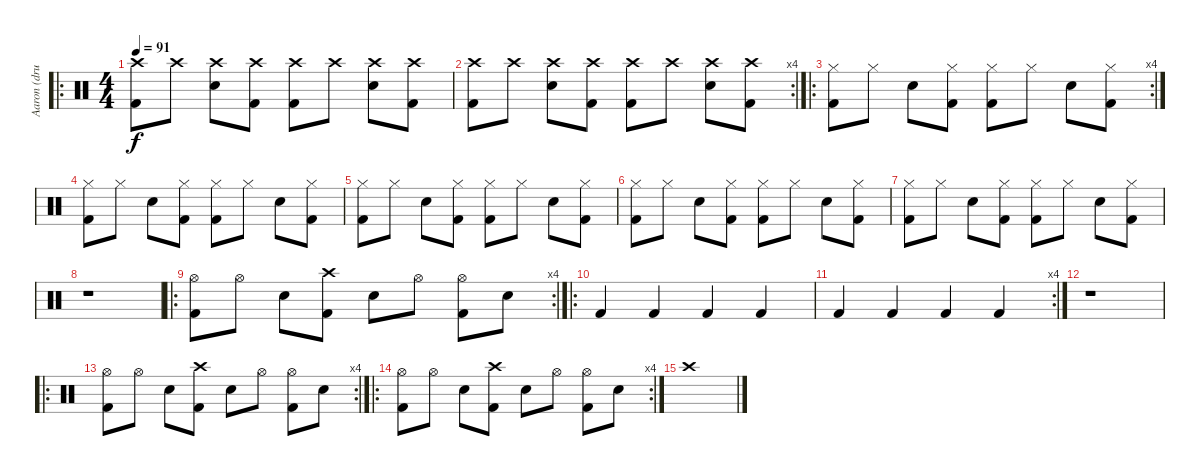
\track ("Aaron (drums)" "Aaron (dru") {instrument percussion}
\staff {score}
\articulation defaults
\ro
\ts (4 4)
\tempo 91
\clef neutral
\ks c
("Kick (hit) 2" "Crash high (hit)").8{dy f} "Crash high (hit)".8 ("Snare (hit) 2" "Crash high (hit)").8 ("Kick (hit) 2" "Crash high (hit)").8 ("Kick (hit) 2" "Crash high (hit)").8 "Crash high (hit)".8 ("Snare (hit) 2" "Crash high (hit)").8 ("Kick (hit) 2" "Crash high (hit)").8 |
\rc 4
("Kick (hit) 2" "Crash high (hit)").8 "Crash high (hit)".8 ("Snare (hit) 2" "Crash high (hit)").8 ("Kick (hit) 2" "Crash high (hit)").8 ("Kick (hit) 2" "Crash high (hit)").8 "Crash high (hit)".8 ("Snare (hit) 2" "Crash high (hit)").8 ("Kick (hit) 2" "Crash high (hit)").8 |
\ro
\rc 4
("Kick (hit) 2" "Hi-Hat (closed)").8 "Hi-Hat (closed)".8 "Snare (hit) 2".8 ("Kick (hit) 2" "Hi-Hat (closed)").8 ("Kick (hit) 2" "Hi-Hat (closed)").8 "Hi-Hat (closed)".8 "Snare (hit) 2".8 ("Kick (hit) 2" "Hi-Hat (closed)").8 |
("Kick (hit) 2" "Hi-Hat (closed)").8 "Hi-Hat (closed)".8 "Snare (hit) 2".8 ("Kick (hit) 2" "Hi-Hat (closed)").8 ("Kick (hit) 2" "Hi-Hat (closed)").8 "Hi-Hat (closed)".8 "Snare (hit) 2".8 ("Kick (hit) 2" "Hi-Hat (closed)").8 |
("Kick (hit) 2" "Hi-Hat (closed)").8 "Hi-Hat (closed)".8 "Snare (hit) 2".8 ("Kick (hit) 2" "Hi-Hat (closed)").8 ("Kick (hit) 2" "Hi-Hat (closed)").8 "Hi-Hat (closed)".8 "Snare (hit) 2".8 ("Kick (hit) 2" "Hi-Hat (closed)").8 |
("Kick (hit) 2" "Hi-Hat (closed)").8 "Hi-Hat (closed)".8 "Snare (hit) 2".8 ("Kick (hit) 2" "Hi-Hat (closed)").8 ("Kick (hit) 2" "Hi-Hat (closed)").8 "Hi-Hat (closed)".8 "Snare (hit) 2".8 ("Kick (hit) 2" "Hi-Hat (closed)").8 |
("Kick (hit) 2" "Hi-Hat (closed)").8 "Hi-Hat (closed)".8 "Snare (hit) 2".8 ("Kick (hit) 2" "Hi-Hat (closed)").8 ("Kick (hit) 2" "Hi-Hat (closed)").8 "Hi-Hat (closed)".8 "Snare (hit) 2".8 ("Kick (hit) 2" "Hi-Hat (closed)").8 |
r.1 |
\ro
\rc 4
("Kick (hit) 2" "Hi-Hat (open)").8 "Hi-Hat (open)".8 "Snare (hit) 2".8 ("Kick (hit) 2" "Crash high (hit)").8 "Snare (hit) 2".8 "Hi-Hat (open)".8 ("Kick (hit) 2" "Hi-Hat (open)").8 "Snare (hit) 2".8 |
\ro "Kick (hit) 2".4 "Kick (hit) 2".4 "Kick (hit) 2".4 "Kick (hit) 2".4
|
\rc 4 "Kick (hit) 2".4 "Kick (hit) 2".4 "Kick (hit) 2".4 "Kick (hit) 2".4
|
r.1 |
\ro
\rc 4
("Kick (hit) 2" "Hi-Hat (open)").8 "Hi-Hat (open)".8 "Snare (hit) 2".8 ("Kick (hit) 2" "Crash high (hit)").8 "Snare (hit) 2".8 "Hi-Hat (open)".8 ("Kick (hit) 2" "Hi-Hat (open)").8 "Snare (hit) 2".8 |
\ro
\rc 4
("Kick (hit) 2" "Hi-Hat (open)").8 "Hi-Hat (open)".8 "Snare (hit) 2".8 ("Kick (hit) 2" "Crash high (hit)").8 "Snare (hit) 2".8 "Hi-Hat (open)".8 ("Kick (hit) 2" "Hi-Hat (open)").8 "Snare (hit) 2".8 |
"Crash high (hit)".1
